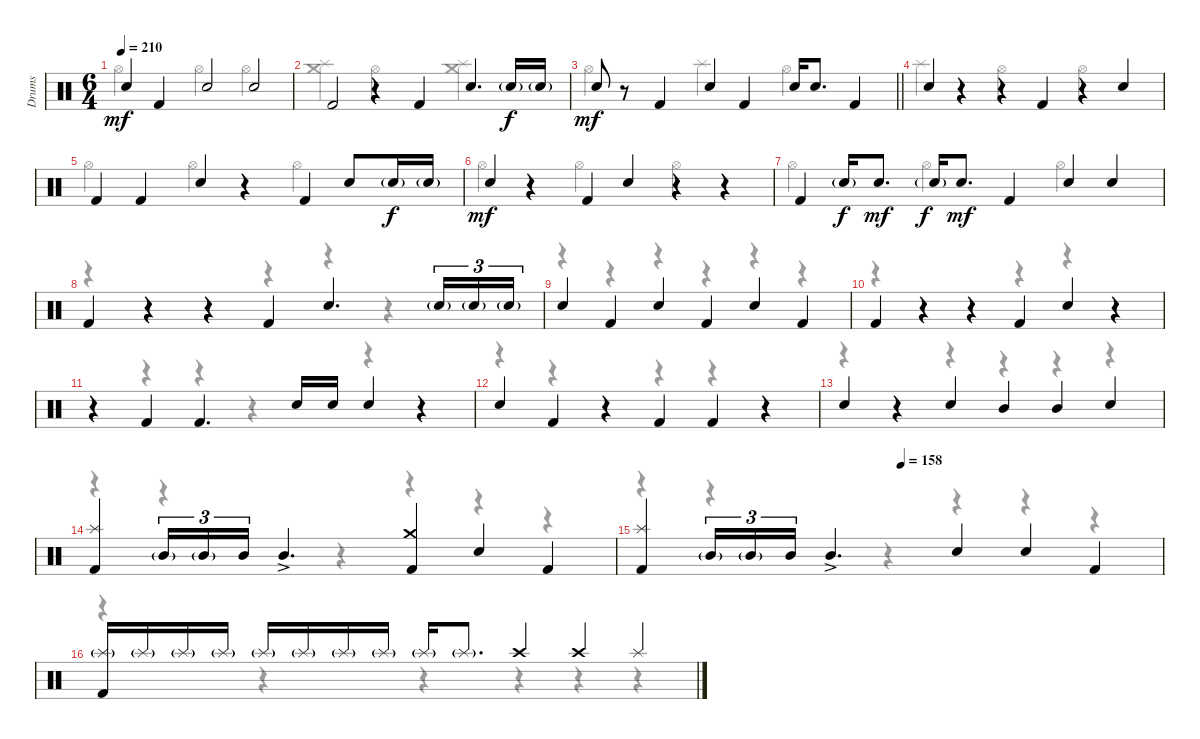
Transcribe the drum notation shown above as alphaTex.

\track ("Drums" "Drums") {instrument percussion}
\staff {score}
\articulation defaults
\voice
\ts (6 4)
\tempo 210
\clef neutral
\ks c "Snare (hit) 2".4{dy mf} "Kick (hit) 2".4 "Snare (hit) 2".2 "Snare (hit) 2".2
|
"Kick (hit) 2".2 r.4 "Kick (hit) 2".4 "Snare (hit) 2".4{d} "Snare (hit) 2"{g}.16{dy f} "Snare (hit) 2"{g}.16 |
\barLineRight lightlight "Snare (hit) 2".8{dy mf}
r.8 "Kick (hit) 2".4 "Snare (hit) 2".4 "Kick (hit) 2".4 "Snare (hit) 2".16 "Snare (hit) 2".8{d} "Kick (hit) 2".4 |
"Snare (hit) 2".4 r.4 r.4 "Kick (hit) 2".4 r.4 "Snare (hit) 2".4 |
"Kick (hit) 2".4 "Kick (hit) 2".4 "Snare (hit) 2".4 r.4 "Kick (hit) 2".4 "Snare (hit) 2".8 "Snare (hit) 2"{g}.16{dy f} "Snare (hit) 2"{g}.16 |
"Snare (hit) 2".4{dy mf} r.4 "Kick (hit) 2".4 "Snare (hit) 2".4 r.4 r.4 |
"Kick (hit) 2".4 "Snare (hit) 2"{g}.16{dy f} "Snare (hit) 2".8{d dy mf} "Snare (hit) 2"{g}.16{dy f} "Snare (hit) 2".8{d dy mf} "Kick (hit) 2".4 "Snare (hit) 2".4 "Snare (hit) 2".4 |
"Kick (hit) 2".4 r.4 r.4 "Kick (hit) 2".4 "Snare (hit) 2".4{d} "Snare (hit) 2"{g}.16{tu (3 2)} "Snare (hit) 2"{g}.16{tu (3 2)} "Snare (hit) 2"{g}.16{tu (3 2)} |
"Snare (hit) 2".4 "Kick (hit) 2".4 "Snare (hit) 2".4 "Kick (hit) 2".4 "Snare (hit) 2".4 "Kick (hit) 2".4 |
"Kick (hit) 2".4 r.4 r.4 "Kick (hit) 2".4 "Snare (hit) 2".4 r.4 |
r.4 "Kick (hit) 2".4 "Kick (hit) 2".4{d} "Snare (hit) 2".16 "Snare (hit) 2".16 "Snare (hit) 2".4 r.4 |
"Snare (hit) 2".4 "Kick (hit) 2".4 r.4 "Kick (hit) 2".4 "Kick (hit) 2".4 r.4 |
"Snare (hit) 2".4 r.4 "Snare (hit) 2".4 "Mid Tom (hit)".4 "Mid Tom (hit)".4 "Snare (hit) 2".4 |
("Kick (hit) 2" "Splash (hit)").4 "Mid Tom (hit)"{g}.16{tu (3 2)} "Mid Tom (hit)"{g}.16{tu (3 2)} "Mid Tom (hit)".16{tu (3 2)} "Mid Tom (hit)"{ac}.4{d} ("Kick (hit) 2" "Crash medium (hit)").4 "Snare (hit) 2".4 "Kick (hit) 2".4 |
\tempo (158 0.5)
("Kick (hit) 2" "Splash (hit)").4 "Mid Tom (hit)"{g}.16{tu (3 2)} "Mid Tom (hit)"{g}.16{tu (3 2)} "Mid Tom (hit)".16{tu (3 2)} "Mid Tom (hit)"{ac}.4{d} "Snare (hit) 2".4 "Snare (hit) 2".4 "Kick (hit) 2".4 |
("Kick (hit) 2" "Splash (hit)"{g}).16 "Splash (hit)"{g}.16 "Splash (hit)"{g}.16 "Splash (hit)"{g}.16 "Splash (hit)"{g}.16 "Splash (hit)"{g}.16 "Splash (hit)"{g}.16 "Splash (hit)"{g}.16 "Splash (hit)"{g}.16 "Splash (hit)"{g}.8{d} "Crash high (hit)".4 "Crash high (hit)".4 "Splash (hit)".4
\voice
\clef neutral
\ottava regular
\simile none
\ks c "Hi-Hat (open)".2{dy mf} "Hi-Hat (open)".2 "Hi-Hat (open)".2
|
("Splash (hit)" "Crash medium (hit)").2 "Hi-Hat (open)".2 ("Splash (hit)" "Crash medium (hit)").2 |
\barLineRight lightlight "Hi-Hat (open)".2 "Splash (hit)".2 "Hi-Hat (open)".2
|
"Splash (hit)".2 "Hi-Hat (open)".2 "Hi-Hat (open)".2 |
"Hi-Hat (open)".2 "Hi-Hat (open)".2 "Hi-Hat (open)".2 |
"Hi-Hat (open)".2 "Hi-Hat (open)".2 "Hi-Hat (open)".2 |
"Hi-Hat (open)".2 "Hi-Hat (open)".2 "Hi-Hat (open)".2 |
r.4 r.4 r.4 r.4 r.4 r.4 |
r.4 r.4 r.4 r.4 r.4 r.4 |
r.4 r.4 r.4 r.4 r.4 r.4 |
r.4 r.4 r.4 r.4 r.4 r.4 |
r.4 r.4 r.4 r.4 r.4 r.4 |
r.4 r.4 r.4 r.4 r.4 r.4 |
r.4 r.4 r.4 r.4 r.4 r.4 |
r.4 r.4 r.4 r.4 r.4 r.4 |
r.4 r.4 r.4 r.4 r.4 r.4
